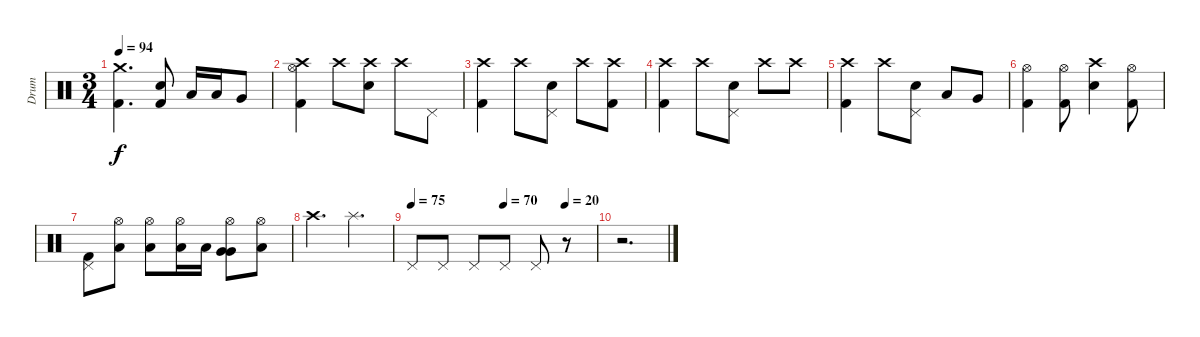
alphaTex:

\track ("Drum" "Drum") {instrument percussion}
\staff {score}
\articulation defaults
\ts (3 4)
\tempo 94
\clef neutral
\ks c
("Crash medium (hit)" "Kick (hit) 2").4{d dy f} ("Electric Snare (hit)" "Kick (hit) 2").8 "Low Tom (hit)".16 "Low Tom (hit)".16 "Very Low Tom (hit)".8 |
("Crash high (hit)" "Hi-Hat (open)" "Kick (hit) 2").4 "Crash high (hit)".8 ("Crash high (hit)" "Electric Snare (hit)").8 "Crash high (hit)".8 "Pedal Hi-Hat (hit)".8 |
("Crash high (hit)" "Kick (hit) 2").4 "Crash high (hit)".8 ("Pedal Hi-Hat (hit)" "Electric Snare (hit)").8 "Crash high (hit)".8 ("Crash high (hit)" "Kick (hit) 2").8 |
("Crash high (hit)" "Kick (hit) 2").4 "Crash high (hit)".8 ("Pedal Hi-Hat (hit)" "Electric Snare (hit)").8 "Crash high (hit)".8 "Crash high (hit)".8 |
("Crash high (hit)" "Kick (hit) 2").4 "Crash high (hit)".8 ("Pedal Hi-Hat (hit)" "Electric Snare (hit)").8 "Low Tom (hit)".8 "Very Low Tom (hit)".8 |
("Hi-Hat (open)" "Kick (hit) 2").4 ("Hi-Hat (open)" "Kick (hit) 2").8 ("Crash high (hit)" "Electric Snare (hit)").4 ("Hi-Hat (open)" "Kick (hit) 2").8 |
("Pedal Hi-Hat (hit)" "Kick (hit) 2").8 ("Hi-Hat (open)" "Low Tom (hit)").8 ("Hi-Hat (open)" "Low Tom (hit)").8 ("Hi-Hat (open)" "Low Tom (hit)").16 "Low Tom (hit)".16 ("Hi-Hat (open)" "Very Low Tom (hit)" "Very Low Tom (hit)").8 ("Hi-Hat (open)" "Low Floor Tom (hit)").8 |
"Crash high (hit)".4{d} "Splash (hit)".4{d} |
\tempo 75
\tempo (70 0.5)
\tempo (20 0.8333333333333334)
"Pedal Hi-Hat (hit)".8 "Pedal Hi-Hat (hit)".8 "Pedal Hi-Hat (hit)".8 "Pedal Hi-Hat (hit)".8 "Pedal Hi-Hat (hit)".8 r.8 |
r.2{d}
